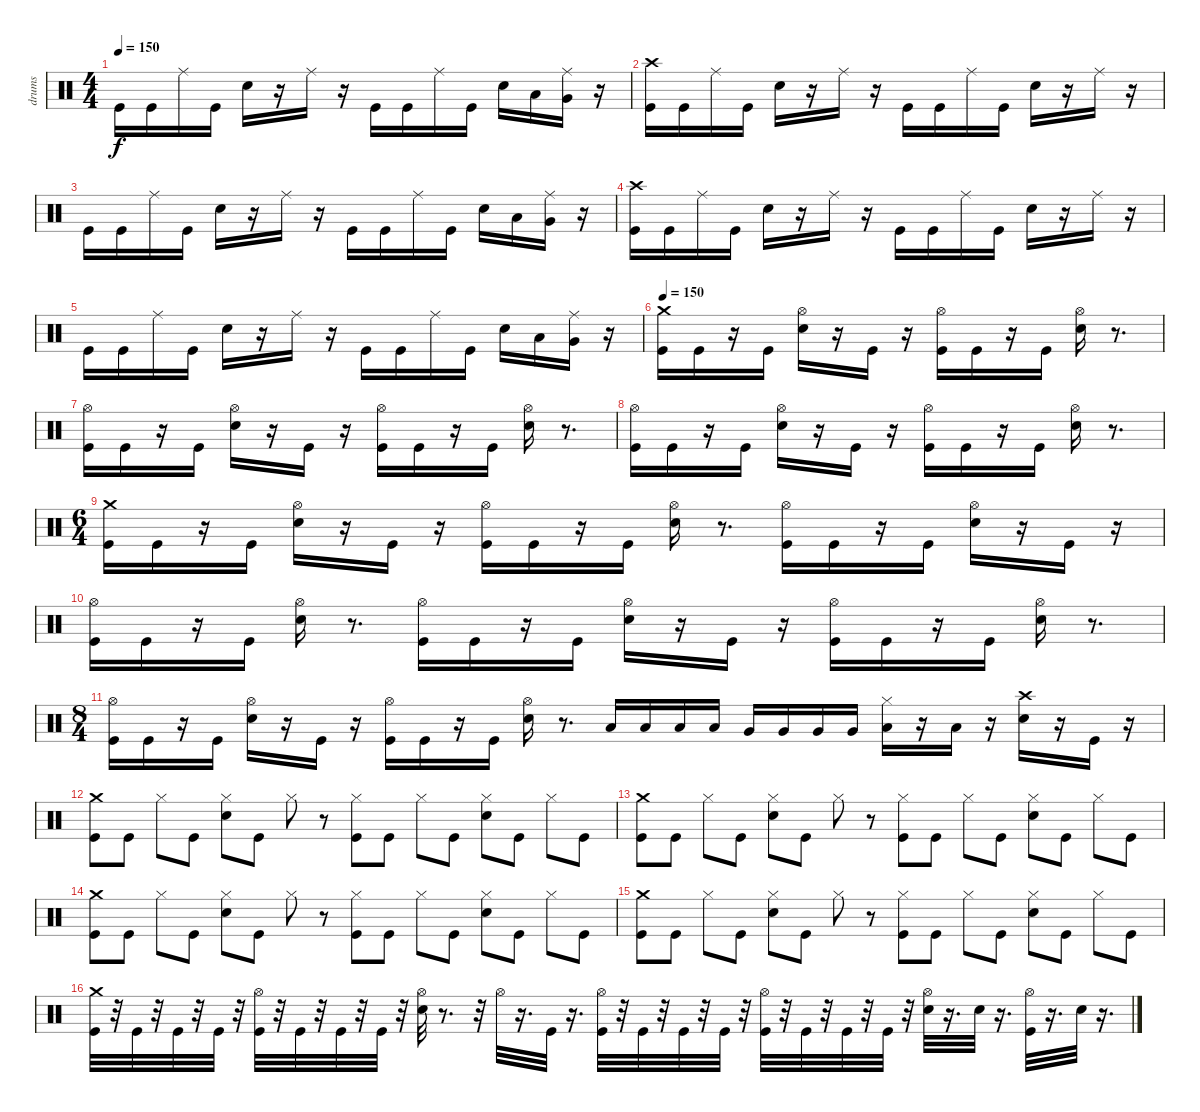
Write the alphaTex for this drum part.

\track ("drums" "drums") {instrument percussion}
\staff {score}
\articulation defaults
\ts (4 4)
\tempo 150
\clef neutral
\ks c "Kick (hit)".16{dy f} "Kick (hit)".16 "Ride (middle)".16 "Kick (hit)".16 "Electric Snare (hit)".16
r.16 "Ride (middle)".16 r.16 "Kick (hit)".16 "Kick (hit)".16 "Ride (middle)".16 "Kick (hit)".16 "Electric Snare (hit)".16 "Low Tom (hit)".16 ("Very Low Tom (hit)" "Ride (middle)").16 r.16 |
("Crash high (hit)" "Kick (hit)").16 "Kick (hit)".16 "Ride (middle)".16 "Kick (hit)".16 "Electric Snare (hit)".16 r.16 "Ride (middle)".16 r.16 "Kick (hit)".16 "Kick (hit)".16 "Ride (middle)".16 "Kick (hit)".16 "Electric Snare (hit)".16 r.16 "Ride (middle)".16 r.16 |
"Kick (hit)".16 "Kick (hit)".16 "Ride (middle)".16 "Kick (hit)".16 "Electric Snare (hit)".16 r.16 "Ride (middle)".16 r.16 "Kick (hit)".16 "Kick (hit)".16 "Ride (middle)".16 "Kick (hit)".16 "Electric Snare (hit)".16 "Low Tom (hit)".16 ("Very Low Tom (hit)" "Ride (middle)").16 r.16 |
("Crash high (hit)" "Kick (hit)").16 "Kick (hit)".16 "Ride (middle)".16 "Kick (hit)".16 "Electric Snare (hit)".16 r.16 "Ride (middle)".16 r.16 "Kick (hit)".16 "Kick (hit)".16 "Ride (middle)".16 "Kick (hit)".16 "Electric Snare (hit)".16 r.16 "Ride (middle)".16 r.16 |
"Kick (hit)".16 "Kick (hit)".16 "Ride (middle)".16 "Kick (hit)".16 "Electric Snare (hit)".16 r.16 "Ride (middle)".16 r.16 "Kick (hit)".16 "Kick (hit)".16 "Ride (middle)".16 "Kick (hit)".16 "Electric Snare (hit)".16 "Low Tom (hit)".16 ("Very Low Tom (hit)" "Ride (middle)").16 r.16 |
\tempo 150
("Crash medium (hit)" "Kick (hit)").16 "Kick (hit)".16 r.16 "Kick (hit)".16 ("Hi-Hat (open)" "Electric Snare (hit)").16 r.16 "Kick (hit)".16 r.16 ("Hi-Hat (open)" "Kick (hit)").16 "Kick (hit)".16 r.16 "Kick (hit)".16 ("Hi-Hat (open)" "Electric Snare (hit)").16 r.8{d} |
("Hi-Hat (open)" "Kick (hit)").16 "Kick (hit)".16 r.16 "Kick (hit)".16 ("Hi-Hat (open)" "Electric Snare (hit)").16 r.16 "Kick (hit)".16 r.16 ("Hi-Hat (open)" "Kick (hit)").16 "Kick (hit)".16 r.16 "Kick (hit)".16 ("Hi-Hat (open)" "Electric Snare (hit)").16 r.8{d} |
("Hi-Hat (open)" "Kick (hit)").16 "Kick (hit)".16 r.16 "Kick (hit)".16 ("Hi-Hat (open)" "Electric Snare (hit)").16 r.16 "Kick (hit)".16 r.16 ("Hi-Hat (open)" "Kick (hit)").16 "Kick (hit)".16 r.16 "Kick (hit)".16 ("Hi-Hat (open)" "Electric Snare (hit)").16 r.8{d} |
\ts (6 4)
("Crash medium (hit)" "Kick (hit)").16 "Kick (hit)".16 r.16 "Kick (hit)".16 ("Hi-Hat (open)" "Electric Snare (hit)").16 r.16 "Kick (hit)".16 r.16 ("Hi-Hat (open)" "Kick (hit)").16 "Kick (hit)".16 r.16 "Kick (hit)".16 ("Hi-Hat (open)" "Electric Snare (hit)").16 r.8{d} ("Hi-Hat (open)" "Kick (hit)").16 "Kick (hit)".16 r.16 "Kick (hit)".16 ("Hi-Hat (open)" "Electric Snare (hit)").16 r.16 "Kick (hit)".16 r.16 |
("Hi-Hat (open)" "Kick (hit)").16 "Kick (hit)".16 r.16 "Kick (hit)".16 ("Hi-Hat (open)" "Electric Snare (hit)").16 r.8{d} ("Hi-Hat (open)" "Kick (hit)").16 "Kick (hit)".16 r.16 "Kick (hit)".16 ("Hi-Hat (open)" "Electric Snare (hit)").16 r.16 "Kick (hit)".16 r.16 ("Hi-Hat (open)" "Kick (hit)").16 "Kick (hit)".16 r.16 "Kick (hit)".16 ("Hi-Hat (open)" "Electric Snare (hit)").16 r.8{d} |
\ts (8 4)
("Hi-Hat (open)" "Kick (hit)").16 "Kick (hit)".16 r.16 "Kick (hit)".16 ("Hi-Hat (open)" "Electric Snare (hit)").16 r.16 "Kick (hit)".16 r.16 ("Hi-Hat (open)" "Kick (hit)").16 "Kick (hit)".16 r.16 "Kick (hit)".16 ("Hi-Hat (open)" "Electric Snare (hit)").16 r.8{d} "Low Tom (hit)".16 "Low Tom (hit)".16 "Low Tom (hit)".16 "Low Tom (hit)".16 "Very Low Tom (hit)".16 "Very Low Tom (hit)".16 "Very Low Tom (hit)".16 "Very Low Tom (hit)".16 ("Hi-Hat (closed)" "Low Floor Tom (hit)").16 r.16 "Low Floor Tom (hit)".16 r.16 ("Electric Snare (hit)" "Crash high (hit)").16 r.16 "Kick (hit)".16 r.16 |
("Crash medium (hit)" "Kick (hit)").8 "Kick (hit)".8 "Hi-Hat (closed)".8 "Kick (hit)".8 ("Hi-Hat (closed)" "Electric Snare (hit)").8 "Kick (hit)".8 "Hi-Hat (closed)".8 r.8 ("Hi-Hat (closed)" "Kick (hit)").8 "Kick (hit)".8 "Hi-Hat (closed)".8 "Kick (hit)".8 ("Hi-Hat (closed)" "Electric Snare (hit)").8 "Kick (hit)".8 "Hi-Hat (closed)".8 "Kick (hit)".8 |
("Crash medium (hit)" "Kick (hit)").8 "Kick (hit)".8 "Hi-Hat (closed)".8 "Kick (hit)".8 ("Hi-Hat (closed)" "Electric Snare (hit)").8 "Kick (hit)".8 "Hi-Hat (closed)".8 r.8 ("Hi-Hat (closed)" "Kick (hit)").8 "Kick (hit)".8 "Hi-Hat (closed)".8 "Kick (hit)".8 ("Hi-Hat (closed)" "Electric Snare (hit)").8 "Kick (hit)".8 "Hi-Hat (closed)".8 "Kick (hit)".8 |
("Crash medium (hit)" "Kick (hit)").8 "Kick (hit)".8 "Hi-Hat (closed)".8 "Kick (hit)".8 ("Hi-Hat (closed)" "Electric Snare (hit)").8 "Kick (hit)".8 "Hi-Hat (closed)".8 r.8 ("Hi-Hat (closed)" "Kick (hit)").8 "Kick (hit)".8 "Hi-Hat (closed)".8 "Kick (hit)".8 ("Hi-Hat (closed)" "Electric Snare (hit)").8 "Kick (hit)".8 "Hi-Hat (closed)".8 "Kick (hit)".8 |
("Crash medium (hit)" "Kick (hit)").8 "Kick (hit)".8 "Hi-Hat (closed)".8 "Kick (hit)".8 ("Hi-Hat (closed)" "Electric Snare (hit)").8 "Kick (hit)".8 "Hi-Hat (closed)".8 r.8 ("Hi-Hat (closed)" "Kick (hit)").8 "Kick (hit)".8 "Hi-Hat (closed)".8 "Kick (hit)".8 ("Hi-Hat (closed)" "Electric Snare (hit)").8 "Kick (hit)".8 "Hi-Hat (closed)".8 "Kick (hit)".8 |
("Crash medium (hit)" "Kick (hit)").32 r.32 "Kick (hit)".32 r.32 "Kick (hit)".32 r.32 "Kick (hit)".32 r.32 ("Hi-Hat (open)" "Kick (hit)").32 r.32 "Kick (hit)".32 r.32 "Kick (hit)".32 r.32 "Kick (hit)".32 r.32 ("Hi-Hat (open)" "Electric Snare (hit)").32 r.8{d} r.32 "Hi-Hat (open)".32 r.16{d} "Kick (hit)".32 r.16{d} ("Hi-Hat (open)" "Kick (hit)").32 r.32 "Kick (hit)".32 r.32 "Kick (hit)".32 r.32 "Kick (hit)".32 r.32 ("Hi-Hat (open)" "Kick (hit)").32 r.32 "Kick (hit)".32 r.32 "Kick (hit)".32 r.32 "Kick (hit)".32 r.32 ("Hi-Hat (open)" "Electric Snare (hit)").32 r.16{d} "Electric Snare (hit)".32 r.16{d} ("Kick (hit)" "Hi-Hat (open)").32 r.16{d} "Electric Snare (hit)".32 r.16{d}
